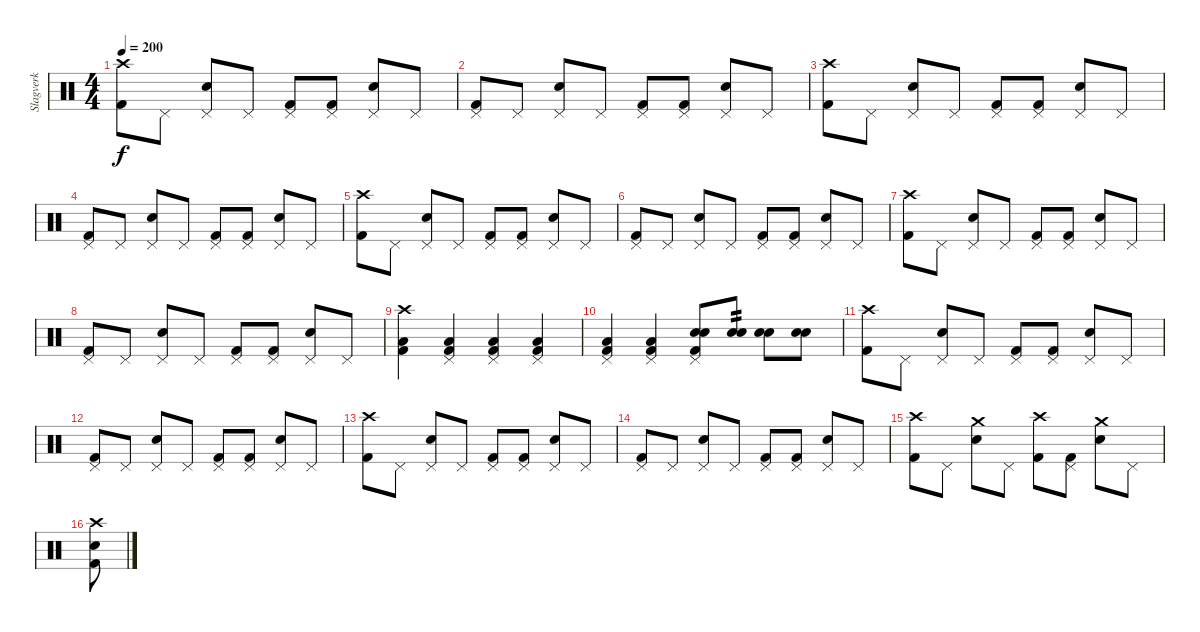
\track ("Slagverk" "Slagverk") {instrument percussion}
\staff {score}
\articulation defaults
\ts (4 4)
\tempo 200
\clef neutral
\ks c
("Crash high (hit)" "Kick (hit) 2").8{dy f} "Pedal Hi-Hat (hit)".8 ("Pedal Hi-Hat (hit)" "Electric Snare (hit)").8 "Pedal Hi-Hat (hit)".8 ("Pedal Hi-Hat (hit)" "Kick (hit) 2").8 ("Pedal Hi-Hat (hit)" "Kick (hit) 2").8 ("Pedal Hi-Hat (hit)" "Electric Snare (hit)").8 "Pedal Hi-Hat (hit)".8 |
("Pedal Hi-Hat (hit)" "Kick (hit) 2").8 "Pedal Hi-Hat (hit)".8 ("Pedal Hi-Hat (hit)" "Electric Snare (hit)").8 "Pedal Hi-Hat (hit)".8 ("Pedal Hi-Hat (hit)" "Kick (hit) 2").8 ("Pedal Hi-Hat (hit)" "Kick (hit) 2").8 ("Pedal Hi-Hat (hit)" "Electric Snare (hit)").8 "Pedal Hi-Hat (hit)".8 |
("Crash high (hit)" "Kick (hit) 2").8 "Pedal Hi-Hat (hit)".8 ("Pedal Hi-Hat (hit)" "Electric Snare (hit)").8 "Pedal Hi-Hat (hit)".8 ("Pedal Hi-Hat (hit)" "Kick (hit) 2").8 ("Pedal Hi-Hat (hit)" "Kick (hit) 2").8 ("Pedal Hi-Hat (hit)" "Electric Snare (hit)").8 "Pedal Hi-Hat (hit)".8 |
("Pedal Hi-Hat (hit)" "Kick (hit) 2").8 "Pedal Hi-Hat (hit)".8 ("Pedal Hi-Hat (hit)" "Electric Snare (hit)").8 "Pedal Hi-Hat (hit)".8 ("Pedal Hi-Hat (hit)" "Kick (hit) 2").8 ("Pedal Hi-Hat (hit)" "Kick (hit) 2").8 ("Pedal Hi-Hat (hit)" "Electric Snare (hit)").8 "Pedal Hi-Hat (hit)".8 |
("Crash high (hit)" "Kick (hit) 2").8 "Pedal Hi-Hat (hit)".8 ("Pedal Hi-Hat (hit)" "Electric Snare (hit)").8 "Pedal Hi-Hat (hit)".8 ("Pedal Hi-Hat (hit)" "Kick (hit) 2").8 ("Pedal Hi-Hat (hit)" "Kick (hit) 2").8 ("Pedal Hi-Hat (hit)" "Electric Snare (hit)").8 "Pedal Hi-Hat (hit)".8 |
("Pedal Hi-Hat (hit)" "Kick (hit) 2").8 "Pedal Hi-Hat (hit)".8 ("Pedal Hi-Hat (hit)" "Electric Snare (hit)").8 "Pedal Hi-Hat (hit)".8 ("Pedal Hi-Hat (hit)" "Kick (hit) 2").8 ("Pedal Hi-Hat (hit)" "Kick (hit) 2").8 ("Pedal Hi-Hat (hit)" "Electric Snare (hit)").8 "Pedal Hi-Hat (hit)".8 |
("Crash high (hit)" "Kick (hit) 2").8 "Pedal Hi-Hat (hit)".8 ("Pedal Hi-Hat (hit)" "Electric Snare (hit)").8 "Pedal Hi-Hat (hit)".8 ("Pedal Hi-Hat (hit)" "Kick (hit) 2").8 ("Pedal Hi-Hat (hit)" "Kick (hit) 2").8 ("Pedal Hi-Hat (hit)" "Electric Snare (hit)").8 "Pedal Hi-Hat (hit)".8 |
("Pedal Hi-Hat (hit)" "Kick (hit) 2").8 "Pedal Hi-Hat (hit)".8 ("Pedal Hi-Hat (hit)" "Electric Snare (hit)").8 "Pedal Hi-Hat (hit)".8 ("Pedal Hi-Hat (hit)" "Kick (hit) 2").8 ("Pedal Hi-Hat (hit)" "Kick (hit) 2").8 ("Pedal Hi-Hat (hit)" "Electric Snare (hit)").8 "Pedal Hi-Hat (hit)".8 |
("Crash high (hit)" "Low Floor Tom (hit)" "Kick (hit) 2").4 ("Pedal Hi-Hat (hit)" "Low Floor Tom (hit)" "Kick (hit) 2").4 ("Pedal Hi-Hat (hit)" "Low Floor Tom (hit)" "Kick (hit) 2").4 ("Pedal Hi-Hat (hit)" "Low Floor Tom (hit)" "Kick (hit) 2").4 |
("Pedal Hi-Hat (hit)" "Low Floor Tom (hit)" "Kick (hit) 2").4 ("Pedal Hi-Hat (hit)" "Low Floor Tom (hit)" "Kick (hit) 2").4 ("Pedal Hi-Hat (hit)" "Snare (hit) 2" "Electric Snare (hit)" "Kick (hit) 2").8 ("Snare (hit) 2" "Electric Snare (hit)").8{tp 2} ("Snare (hit) 2" "Electric Snare (hit)").8 ("Snare (hit) 2" "Electric Snare (hit)").8 |
("Crash high (hit)" "Kick (hit) 2").8 "Pedal Hi-Hat (hit)".8 ("Pedal Hi-Hat (hit)" "Electric Snare (hit)").8 "Pedal Hi-Hat (hit)".8 ("Pedal Hi-Hat (hit)" "Kick (hit) 2").8 ("Pedal Hi-Hat (hit)" "Kick (hit) 2").8 ("Pedal Hi-Hat (hit)" "Electric Snare (hit)").8 "Pedal Hi-Hat (hit)".8 |
("Pedal Hi-Hat (hit)" "Kick (hit) 2").8 "Pedal Hi-Hat (hit)".8 ("Pedal Hi-Hat (hit)" "Electric Snare (hit)").8 "Pedal Hi-Hat (hit)".8 ("Pedal Hi-Hat (hit)" "Kick (hit) 2").8 ("Pedal Hi-Hat (hit)" "Kick (hit) 2").8 ("Pedal Hi-Hat (hit)" "Electric Snare (hit)").8 "Pedal Hi-Hat (hit)".8 |
("Crash high (hit)" "Kick (hit) 2").8 "Pedal Hi-Hat (hit)".8 ("Pedal Hi-Hat (hit)" "Electric Snare (hit)").8 "Pedal Hi-Hat (hit)".8 ("Pedal Hi-Hat (hit)" "Kick (hit) 2").8 ("Pedal Hi-Hat (hit)" "Kick (hit) 2").8 ("Pedal Hi-Hat (hit)" "Electric Snare (hit)").8 "Pedal Hi-Hat (hit)".8 |
("Pedal Hi-Hat (hit)" "Kick (hit) 2").8 "Pedal Hi-Hat (hit)".8 ("Pedal Hi-Hat (hit)" "Electric Snare (hit)").8 "Pedal Hi-Hat (hit)".8 ("Pedal Hi-Hat (hit)" "Kick (hit) 2").8 ("Pedal Hi-Hat (hit)" "Kick (hit) 2").8 ("Pedal Hi-Hat (hit)" "Electric Snare (hit)").8 "Pedal Hi-Hat (hit)".8 |
("Crash high (hit)" "Kick (hit) 2").8 "Pedal Hi-Hat (hit)".8 ("Crash medium (hit)" "Electric Snare (hit)").8 "Pedal Hi-Hat (hit)".8 ("Crash high (hit)" "Kick (hit) 2").8 ("Pedal Hi-Hat (hit)" "Kick (hit) 2").8 ("Crash medium (hit)" "Electric Snare (hit)").8 "Pedal Hi-Hat (hit)".8 |
("Crash high (hit)" "Electric Snare (hit)" "Kick (hit) 2").8
